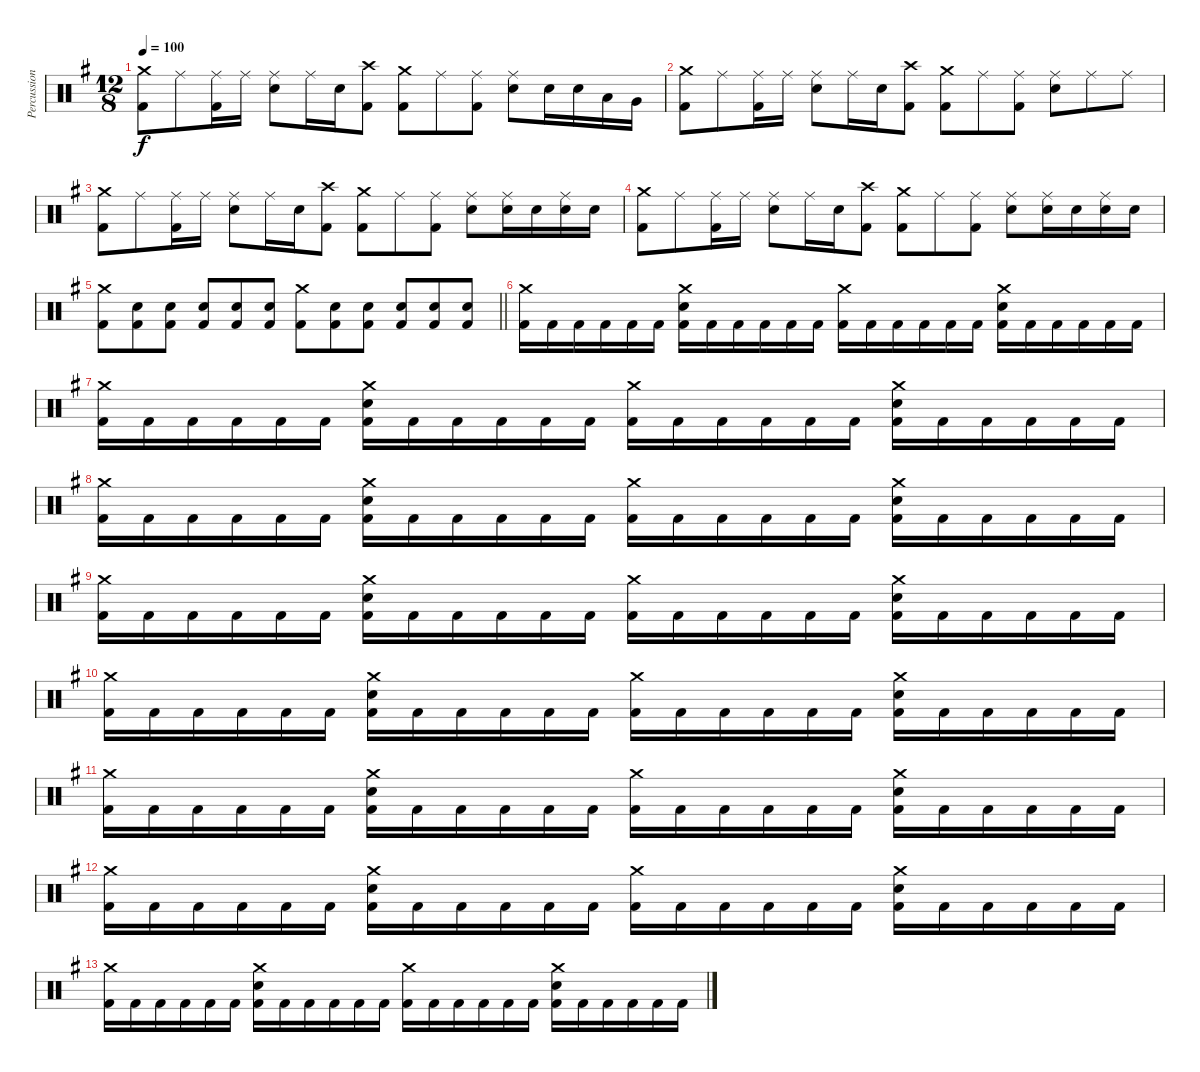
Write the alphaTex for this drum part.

\track ("Percussion" "Percussion") {instrument percussion}
\staff {score}
\articulation defaults
\ts (12 8)
\tempo 100
\clef neutral
\ks g
("Crash medium (hit)" "Kick (hit) 2").8{dy f} "Ride (middle)".8 ("Ride (middle)" "Kick (hit) 2").16 "Ride (middle)".16 ("Ride (middle)" "Snare (hit) 2").8 "Ride (middle)".16 "Snare (hit) 2".16 ("Crash high (hit)" "Kick (hit) 2").8 ("Crash medium (hit)" "Kick (hit) 2").8 "Ride (middle)".8 ("Ride (middle)" "Kick (hit) 2").8 ("Ride (middle)" "Snare (hit) 2").8 "Snare (hit) 2".16 "Snare (hit) 2".16 "Low Tom (hit)".16 "Very Low Tom (hit)".16 |
("Crash medium (hit)" "Kick (hit) 2").8 "Ride (middle)".8 ("Ride (middle)" "Kick (hit) 2").16 "Ride (middle)".16 ("Ride (middle)" "Snare (hit) 2").8 "Ride (middle)".16 "Snare (hit) 2".16 ("Crash high (hit)" "Kick (hit) 2").8 ("Crash medium (hit)" "Kick (hit) 2").8 "Ride (middle)".8 ("Ride (middle)" "Kick (hit) 2").8 ("Ride (middle)" "Snare (hit) 2").8 "Ride (middle)".8 "Ride (middle)".8 |
("Crash medium (hit)" "Kick (hit) 2").8 "Ride (middle)".8 ("Ride (middle)" "Kick (hit) 2").16 "Ride (middle)".16 ("Ride (middle)" "Snare (hit) 2").8 "Ride (middle)".16 "Snare (hit) 2".16 ("Crash high (hit)" "Kick (hit) 2").8 ("Crash medium (hit)" "Kick (hit) 2").8 "Ride (middle)".8 ("Ride (middle)" "Kick (hit) 2").8 ("Ride (middle)" "Snare (hit) 2").8 ("Ride (middle)" "Snare (hit) 2").16 "Snare (hit) 2".16 ("Ride (middle)" "Snare (hit) 2").16 "Snare (hit) 2".16 |
("Crash medium (hit)" "Kick (hit) 2").8 "Ride (middle)".8 ("Ride (middle)" "Kick (hit) 2").16 "Ride (middle)".16 ("Ride (middle)" "Snare (hit) 2").8 "Ride (middle)".16 "Snare (hit) 2".16 ("Crash high (hit)" "Kick (hit) 2").8 ("Crash medium (hit)" "Kick (hit) 2").8 "Ride (middle)".8 ("Ride (middle)" "Kick (hit) 2").8 ("Ride (middle)" "Snare (hit) 2").8 ("Ride (middle)" "Snare (hit) 2").16 "Snare (hit) 2".16 ("Ride (middle)" "Snare (hit) 2").16 "Snare (hit) 2".16 |
\barLineRight lightlight
("Crash medium (hit)" "Kick (hit) 2").8 ("Snare (hit) 2" "Kick (hit) 2").8 ("Snare (hit) 2" "Kick (hit) 2").8 ("Snare (hit) 2" "Kick (hit) 2").8 ("Snare (hit) 2" "Kick (hit) 2").8 ("Snare (hit) 2" "Kick (hit) 2").8 ("Crash medium (hit)" "Kick (hit) 2").8 ("Snare (hit) 2" "Kick (hit) 2").8 ("Snare (hit) 2" "Kick (hit) 2").8 ("Snare (hit) 2" "Kick (hit) 2").8 ("Snare (hit) 2" "Kick (hit) 2").8 ("Snare (hit) 2" "Kick (hit) 2").8 |
("Crash medium (hit)" "Kick (hit) 2").16 "Kick (hit) 2".16 "Kick (hit) 2".16 "Kick (hit) 2".16 "Kick (hit) 2".16 "Kick (hit) 2".16 ("Crash medium (hit)" "Snare (hit) 2" "Kick (hit) 2").16 "Kick (hit) 2".16 "Kick (hit) 2".16 "Kick (hit) 2".16 "Kick (hit) 2".16 "Kick (hit) 2".16 ("Crash medium (hit)" "Kick (hit) 2").16 "Kick (hit) 2".16 "Kick (hit) 2".16 "Kick (hit) 2".16 "Kick (hit) 2".16 "Kick (hit) 2".16 ("Crash medium (hit)" "Snare (hit) 2" "Kick (hit) 2").16 "Kick (hit) 2".16 "Kick (hit) 2".16 "Kick (hit) 2".16 "Kick (hit) 2".16 "Kick (hit) 2".16 |
("Crash medium (hit)" "Kick (hit) 2").16 "Kick (hit) 2".16 "Kick (hit) 2".16 "Kick (hit) 2".16 "Kick (hit) 2".16 "Kick (hit) 2".16 ("Crash medium (hit)" "Snare (hit) 2" "Kick (hit) 2").16 "Kick (hit) 2".16 "Kick (hit) 2".16 "Kick (hit) 2".16 "Kick (hit) 2".16 "Kick (hit) 2".16 ("Crash medium (hit)" "Kick (hit) 2").16 "Kick (hit) 2".16 "Kick (hit) 2".16 "Kick (hit) 2".16 "Kick (hit) 2".16 "Kick (hit) 2".16 ("Crash medium (hit)" "Snare (hit) 2" "Kick (hit) 2").16 "Kick (hit) 2".16 "Kick (hit) 2".16 "Kick (hit) 2".16 "Kick (hit) 2".16 "Kick (hit) 2".16 |
("Crash medium (hit)" "Kick (hit) 2").16 "Kick (hit) 2".16 "Kick (hit) 2".16 "Kick (hit) 2".16 "Kick (hit) 2".16 "Kick (hit) 2".16 ("Crash medium (hit)" "Snare (hit) 2" "Kick (hit) 2").16 "Kick (hit) 2".16 "Kick (hit) 2".16 "Kick (hit) 2".16 "Kick (hit) 2".16 "Kick (hit) 2".16 ("Crash medium (hit)" "Kick (hit) 2").16 "Kick (hit) 2".16 "Kick (hit) 2".16 "Kick (hit) 2".16 "Kick (hit) 2".16 "Kick (hit) 2".16 ("Crash medium (hit)" "Snare (hit) 2" "Kick (hit) 2").16 "Kick (hit) 2".16 "Kick (hit) 2".16 "Kick (hit) 2".16 "Kick (hit) 2".16 "Kick (hit) 2".16 |
("Crash medium (hit)" "Kick (hit) 2").16 "Kick (hit) 2".16 "Kick (hit) 2".16 "Kick (hit) 2".16 "Kick (hit) 2".16 "Kick (hit) 2".16 ("Crash medium (hit)" "Snare (hit) 2" "Kick (hit) 2").16 "Kick (hit) 2".16 "Kick (hit) 2".16 "Kick (hit) 2".16 "Kick (hit) 2".16 "Kick (hit) 2".16 ("Crash medium (hit)" "Kick (hit) 2").16 "Kick (hit) 2".16 "Kick (hit) 2".16 "Kick (hit) 2".16 "Kick (hit) 2".16 "Kick (hit) 2".16 ("Crash medium (hit)" "Snare (hit) 2" "Kick (hit) 2").16 "Kick (hit) 2".16 "Kick (hit) 2".16 "Kick (hit) 2".16 "Kick (hit) 2".16 "Kick (hit) 2".16 |
("Crash medium (hit)" "Kick (hit) 2").16{volume 5} "Kick (hit) 2".16 "Kick (hit) 2".16 "Kick (hit) 2".16 "Kick (hit) 2".16 "Kick (hit) 2".16 ("Crash medium (hit)" "Snare (hit) 2" "Kick (hit) 2").16 "Kick (hit) 2".16 "Kick (hit) 2".16 "Kick (hit) 2".16 "Kick (hit) 2".16 "Kick (hit) 2".16 ("Crash medium (hit)" "Kick (hit) 2").16 "Kick (hit) 2".16 "Kick (hit) 2".16 "Kick (hit) 2".16 "Kick (hit) 2".16 "Kick (hit) 2".16 ("Crash medium (hit)" "Snare (hit) 2" "Kick (hit) 2").16 "Kick (hit) 2".16 "Kick (hit) 2".16 "Kick (hit) 2".16 "Kick (hit) 2".16 "Kick (hit) 2".16 |
("Crash medium (hit)" "Kick (hit) 2").16 "Kick (hit) 2".16 "Kick (hit) 2".16 "Kick (hit) 2".16 "Kick (hit) 2".16 "Kick (hit) 2".16 ("Crash medium (hit)" "Snare (hit) 2" "Kick (hit) 2").16 "Kick (hit) 2".16 "Kick (hit) 2".16 "Kick (hit) 2".16 "Kick (hit) 2".16 "Kick (hit) 2".16 ("Crash medium (hit)" "Kick (hit) 2").16 "Kick (hit) 2".16 "Kick (hit) 2".16 "Kick (hit) 2".16 "Kick (hit) 2".16 "Kick (hit) 2".16 ("Crash medium (hit)" "Snare (hit) 2" "Kick (hit) 2").16 "Kick (hit) 2".16 "Kick (hit) 2".16 "Kick (hit) 2".16 "Kick (hit) 2".16 "Kick (hit) 2".16 |
("Crash medium (hit)" "Kick (hit) 2").16 "Kick (hit) 2".16 "Kick (hit) 2".16 "Kick (hit) 2".16 "Kick (hit) 2".16 "Kick (hit) 2".16 ("Crash medium (hit)" "Snare (hit) 2" "Kick (hit) 2").16 "Kick (hit) 2".16 "Kick (hit) 2".16 "Kick (hit) 2".16 "Kick (hit) 2".16 "Kick (hit) 2".16 ("Crash medium (hit)" "Kick (hit) 2").16 "Kick (hit) 2".16 "Kick (hit) 2".16 "Kick (hit) 2".16 "Kick (hit) 2".16 "Kick (hit) 2".16 ("Crash medium (hit)" "Snare (hit) 2" "Kick (hit) 2").16{volume 0} "Kick (hit) 2".16 "Kick (hit) 2".16 "Kick (hit) 2".16 "Kick (hit) 2".16 "Kick (hit) 2".16 |
("Crash medium (hit)" "Kick (hit) 2").16 "Kick (hit) 2".16 "Kick (hit) 2".16 "Kick (hit) 2".16 "Kick (hit) 2".16 "Kick (hit) 2".16 ("Crash medium (hit)" "Snare (hit) 2" "Kick (hit) 2").16 "Kick (hit) 2".16 "Kick (hit) 2".16 "Kick (hit) 2".16 "Kick (hit) 2".16 "Kick (hit) 2".16 ("Crash medium (hit)" "Kick (hit) 2").16 "Kick (hit) 2".16 "Kick (hit) 2".16 "Kick (hit) 2".16 "Kick (hit) 2".16 "Kick (hit) 2".16 ("Crash medium (hit)" "Snare (hit) 2" "Kick (hit) 2").16 "Kick (hit) 2".16 "Kick (hit) 2".16 "Kick (hit) 2".16 "Kick (hit) 2".16 "Kick (hit) 2".16
